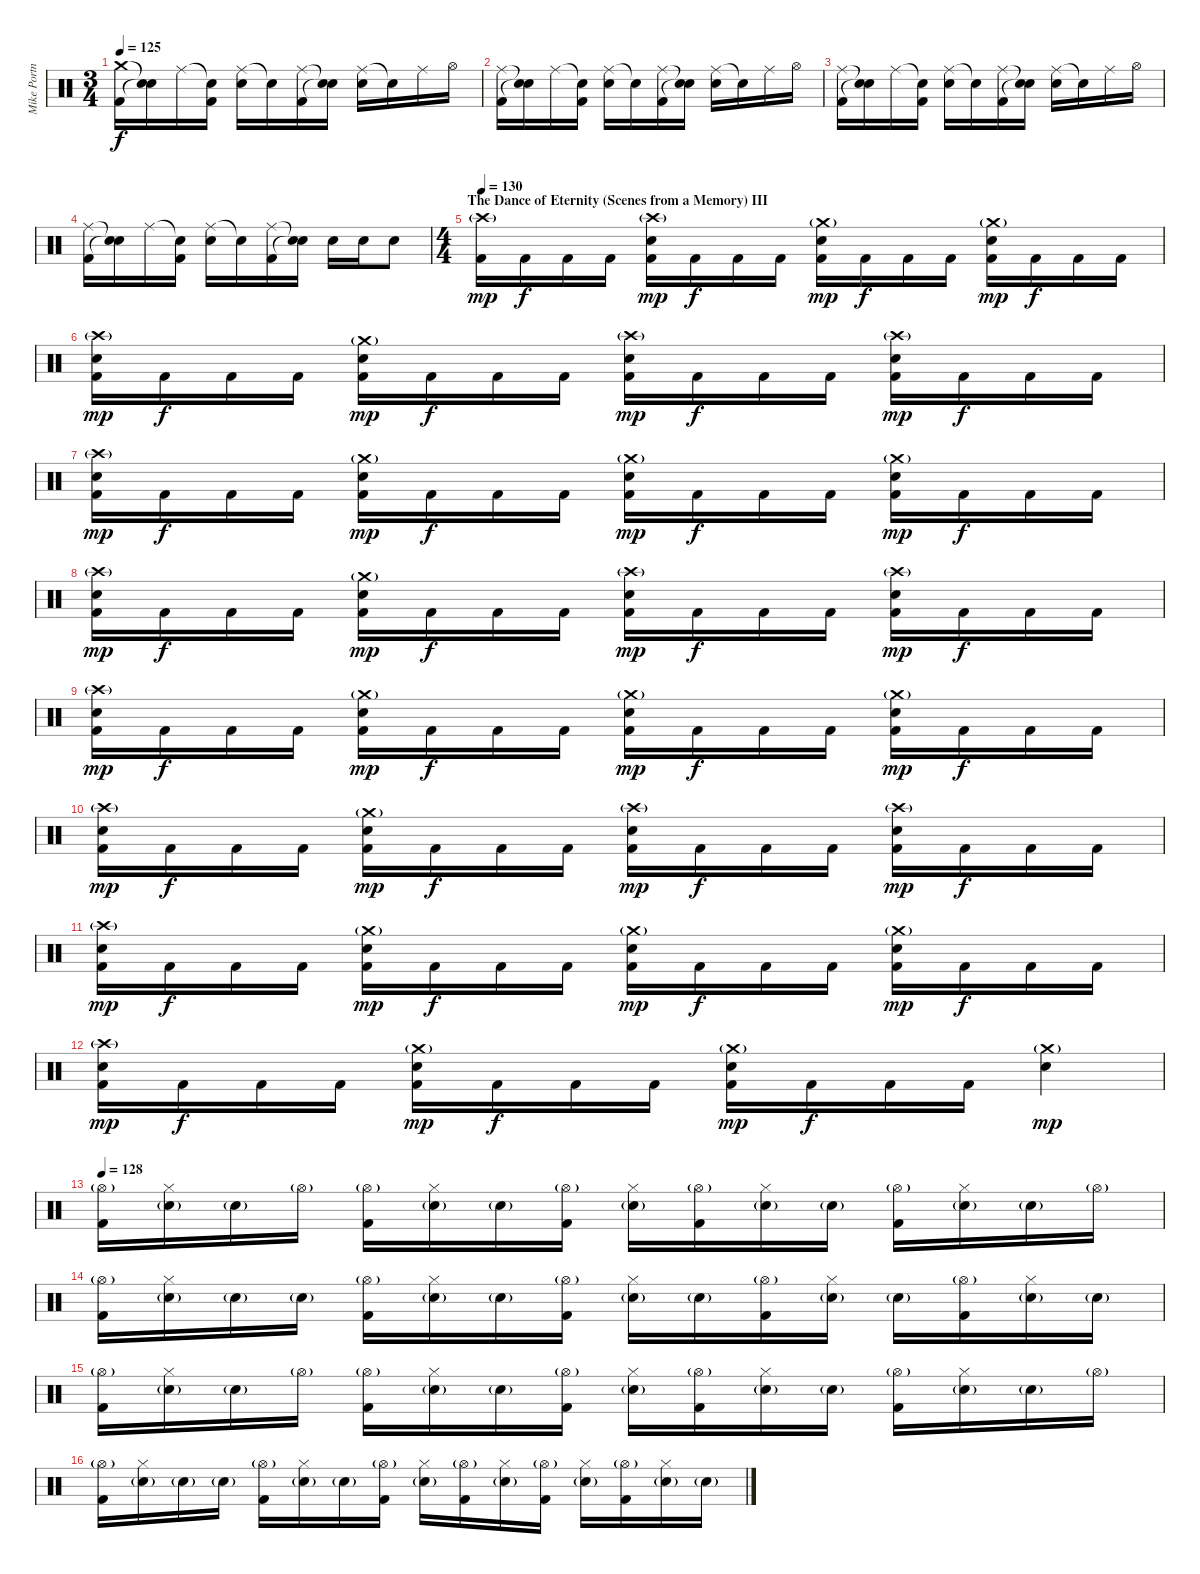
\track ("Mike Portnoy Drums" "Mike Portn") {instrument percussion}
\staff {score}
\articulation defaults
\ts (3 4)
\tempo 125
\clef neutral
\ks c
("Crash medium (hit)" "Kick (hit) 2").16{dy f} ("Snare (hit)"{t} "Snare (hit)"{t}).16 "Ride (middle)".16 ("Snare (hit)"{t} "Kick (hit) 2").16 ("Ride (middle)" "Snare (hit) 2").16 "Snare (hit)"{t}.16 ("Ride (middle)" "Kick (hit) 2").16 ("Snare (hit)"{t} "Snare (hit)"{t}).16 ("Ride (middle)" "Snare (hit) 2").16 "Snare (hit)"{t}.16 "Ride (middle)".16 "Hi-Hat (open)".16 |
("Ride (middle)" "Kick (hit) 2").16 ("Snare (hit)"{t} "Snare (hit)"{t}).16 "Ride (middle)".16 ("Snare (hit)"{t} "Kick (hit) 2").16 ("Ride (middle)" "Snare (hit) 2").16 "Snare (hit)"{t}.16 ("Ride (middle)" "Kick (hit) 2").16 ("Snare (hit)"{t} "Snare (hit)"{t}).16 ("Ride (middle)" "Snare (hit) 2").16 "Snare (hit)"{t}.16 "Ride (middle)".16 "Hi-Hat (open)".16 |
("Ride (middle)" "Kick (hit) 2").16 ("Snare (hit)"{t} "Snare (hit)"{t}).16 "Ride (middle)".16 ("Snare (hit)"{t} "Kick (hit) 2").16 ("Ride (middle)" "Snare (hit) 2").16 "Snare (hit)"{t}.16 ("Ride (middle)" "Kick (hit) 2").16 ("Snare (hit)"{t} "Snare (hit)"{t}).16 ("Ride (middle)" "Snare (hit) 2").16 "Snare (hit)"{t}.16 "Ride (middle)".16 "Hi-Hat (open)".16 |
("Ride (middle)" "Kick (hit) 2").16 ("Snare (hit)"{t} "Snare (hit)"{t}).16 "Ride (middle)".16 ("Snare (hit)"{t} "Kick (hit) 2").16 ("Ride (middle)" "Snare (hit) 2").16 "Snare (hit)"{t}.16 ("Ride (middle)" "Kick (hit) 2").16 ("Snare (hit)"{t} "Snare (hit)"{t}).16 "Snare (hit) 2".16 "Snare (hit) 2".16 "Snare (hit) 2".8 |
\ts (4 4)
\section ("" "The Dance of Eternity (Scenes from a Memory) III")
\tempo 130
("Crash high (hit)"{g} "Kick (hit) 2").16{dy mp} "Kick (hit) 2".16{dy f} "Kick (hit) 2".16 "Kick (hit) 2".16 ("Crash high (hit)"{g} "Snare (hit) 2" "Kick (hit) 2").16{dy mp} "Kick (hit) 2".16{dy f} "Kick (hit) 2".16 "Kick (hit) 2".16 ("Crash medium (hit)"{g} "Snare (hit) 2" "Kick (hit) 2").16{dy mp} "Kick (hit) 2".16{dy f} "Kick (hit) 2".16 "Kick (hit) 2".16 ("Crash medium (hit)"{g} "Snare (hit) 2" "Kick (hit) 2").16{dy mp} "Kick (hit) 2".16{dy f} "Kick (hit) 2".16 "Kick (hit) 2".16 |
("Crash high (hit)"{g} "Snare (hit) 2" "Kick (hit) 2").16{dy mp} "Kick (hit) 2".16{dy f} "Kick (hit) 2".16 "Kick (hit) 2".16 ("Crash medium (hit)"{g} "Snare (hit) 2" "Kick (hit) 2").16{dy mp} "Kick (hit) 2".16{dy f} "Kick (hit) 2".16 "Kick (hit) 2".16 ("Crash high (hit)"{g} "Snare (hit) 2" "Kick (hit) 2").16{dy mp} "Kick (hit) 2".16{dy f} "Kick (hit) 2".16 "Kick (hit) 2".16 ("Crash high (hit)"{g} "Snare (hit) 2" "Kick (hit) 2").16{dy mp} "Kick (hit) 2".16{dy f} "Kick (hit) 2".16 "Kick (hit) 2".16 |
("Crash high (hit)"{g} "Snare (hit) 2" "Kick (hit) 2").16{dy mp} "Kick (hit) 2".16{dy f} "Kick (hit) 2".16 "Kick (hit) 2".16 ("Crash medium (hit)"{g} "Snare (hit) 2" "Kick (hit) 2").16{dy mp} "Kick (hit) 2".16{dy f} "Kick (hit) 2".16 "Kick (hit) 2".16 ("Crash medium (hit)"{g} "Snare (hit) 2" "Kick (hit) 2").16{dy mp} "Kick (hit) 2".16{dy f} "Kick (hit) 2".16 "Kick (hit) 2".16 ("Crash medium (hit)"{g} "Snare (hit) 2" "Kick (hit) 2").16{dy mp} "Kick (hit) 2".16{dy f} "Kick (hit) 2".16 "Kick (hit) 2".16 |
("Crash high (hit)"{g} "Snare (hit) 2" "Kick (hit) 2").16{dy mp} "Kick (hit) 2".16{dy f} "Kick (hit) 2".16 "Kick (hit) 2".16 ("Crash medium (hit)"{g} "Snare (hit) 2" "Kick (hit) 2").16{dy mp} "Kick (hit) 2".16{dy f} "Kick (hit) 2".16 "Kick (hit) 2".16 ("Crash high (hit)"{g} "Snare (hit) 2" "Kick (hit) 2").16{dy mp} "Kick (hit) 2".16{dy f} "Kick (hit) 2".16 "Kick (hit) 2".16 ("Crash high (hit)"{g} "Snare (hit) 2" "Kick (hit) 2").16{dy mp} "Kick (hit) 2".16{dy f} "Kick (hit) 2".16 "Kick (hit) 2".16 |
("Crash high (hit)"{g} "Snare (hit) 2" "Kick (hit) 2").16{dy mp} "Kick (hit) 2".16{dy f} "Kick (hit) 2".16 "Kick (hit) 2".16 ("Crash medium (hit)"{g} "Snare (hit) 2" "Kick (hit) 2").16{dy mp} "Kick (hit) 2".16{dy f} "Kick (hit) 2".16 "Kick (hit) 2".16 ("Crash medium (hit)"{g} "Snare (hit) 2" "Kick (hit) 2").16{dy mp} "Kick (hit) 2".16{dy f} "Kick (hit) 2".16 "Kick (hit) 2".16 ("Crash medium (hit)"{g} "Snare (hit) 2" "Kick (hit) 2").16{dy mp} "Kick (hit) 2".16{dy f} "Kick (hit) 2".16 "Kick (hit) 2".16 |
("Crash high (hit)"{g} "Snare (hit) 2" "Kick (hit) 2").16{dy mp} "Kick (hit) 2".16{dy f} "Kick (hit) 2".16 "Kick (hit) 2".16 ("Crash medium (hit)"{g} "Snare (hit) 2" "Kick (hit) 2").16{dy mp} "Kick (hit) 2".16{dy f} "Kick (hit) 2".16 "Kick (hit) 2".16 ("Crash high (hit)"{g} "Snare (hit) 2" "Kick (hit) 2").16{dy mp} "Kick (hit) 2".16{dy f} "Kick (hit) 2".16 "Kick (hit) 2".16 ("Crash high (hit)"{g} "Snare (hit) 2" "Kick (hit) 2").16{dy mp} "Kick (hit) 2".16{dy f} "Kick (hit) 2".16 "Kick (hit) 2".16 |
("Crash high (hit)"{g} "Snare (hit) 2" "Kick (hit) 2").16{dy mp} "Kick (hit) 2".16{dy f} "Kick (hit) 2".16 "Kick (hit) 2".16 ("Crash medium (hit)"{g} "Snare (hit) 2" "Kick (hit) 2").16{dy mp} "Kick (hit) 2".16{dy f} "Kick (hit) 2".16 "Kick (hit) 2".16 ("Crash medium (hit)"{g} "Snare (hit) 2" "Kick (hit) 2").16{dy mp} "Kick (hit) 2".16{dy f} "Kick (hit) 2".16 "Kick (hit) 2".16 ("Crash medium (hit)"{g} "Snare (hit) 2" "Kick (hit) 2").16{dy mp} "Kick (hit) 2".16{dy f} "Kick (hit) 2".16 "Kick (hit) 2".16 |
("Crash high (hit)"{g} "Snare (hit) 2" "Kick (hit) 2").16{dy mp} "Kick (hit) 2".16{dy f} "Kick (hit) 2".16 "Kick (hit) 2".16 ("Crash medium (hit)"{g} "Snare (hit) 2" "Kick (hit) 2").16{dy mp} "Kick (hit) 2".16{dy f} "Kick (hit) 2".16 "Kick (hit) 2".16 ("Crash medium (hit)"{g} "Snare (hit) 2" "Kick (hit) 2").16{dy mp} "Kick (hit) 2".16{dy f} "Kick (hit) 2".16 "Kick (hit) 2".16 ("Crash medium (hit)"{g} "Snare (hit) 2").4{dy mp} |
\tempo 128
("Hi-Hat (open)"{g} "Kick (hit) 2").16 ("Hi-Hat (closed)" "Snare (hit) 2"{g}).16 "Snare (hit) 2"{g}.16 "Hi-Hat (open)"{g}.16 ("Hi-Hat (open)"{g} "Kick (hit) 2").16 ("Hi-Hat (closed)" "Snare (hit) 2"{g}).16 "Snare (hit) 2"{g}.16 ("Hi-Hat (open)"{g} "Kick (hit) 2").16 ("Hi-Hat (closed)" "Snare (hit) 2"{g}).16 ("Hi-Hat (open)"{g} "Kick (hit) 2").16 ("Hi-Hat (closed)" "Snare (hit) 2"{g}).16 "Snare (hit) 2"{g}.16 ("Hi-Hat (open)"{g} "Kick (hit) 2").16 ("Hi-Hat (closed)" "Snare (hit) 2"{g}).16 "Snare (hit) 2"{g}.16 "Hi-Hat (open)"{g}.16 |
("Hi-Hat (open)"{g} "Kick (hit) 2").16 ("Hi-Hat (closed)" "Snare (hit) 2"{g}).16 "Snare (hit) 2"{g}.16 "Snare (hit) 2"{g}.16 ("Hi-Hat (open)"{g} "Kick (hit) 2").16 ("Hi-Hat (closed)" "Snare (hit) 2"{g}).16 "Snare (hit) 2"{g}.16 ("Hi-Hat (open)"{g} "Kick (hit) 2").16 ("Hi-Hat (closed)" "Snare (hit) 2"{g}).16 "Snare (hit) 2"{g}.16 ("Hi-Hat (open)"{g} "Kick (hit) 2").16 ("Hi-Hat (closed)" "Snare (hit) 2"{g}).16 "Snare (hit) 2"{g}.16 ("Hi-Hat (open)"{g} "Kick (hit) 2").16 ("Hi-Hat (closed)" "Snare (hit) 2"{g}).16 "Snare (hit) 2"{g}.16 |
("Hi-Hat (open)"{g} "Kick (hit) 2").16 ("Hi-Hat (closed)" "Snare (hit) 2"{g}).16 "Snare (hit) 2"{g}.16 "Hi-Hat (open)"{g}.16 ("Hi-Hat (open)"{g} "Kick (hit) 2").16 ("Hi-Hat (closed)" "Snare (hit) 2"{g}).16 "Snare (hit) 2"{g}.16 ("Hi-Hat (open)"{g} "Kick (hit) 2").16 ("Hi-Hat (closed)" "Snare (hit) 2"{g}).16 ("Hi-Hat (open)"{g} "Kick (hit) 2").16 ("Hi-Hat (closed)" "Snare (hit) 2"{g}).16 "Snare (hit) 2"{g}.16 ("Hi-Hat (open)"{g} "Kick (hit) 2").16 ("Hi-Hat (closed)" "Snare (hit) 2"{g}).16 "Snare (hit) 2"{g}.16 "Hi-Hat (open)"{g}.16 |
("Hi-Hat (open)"{g} "Kick (hit) 2").16 ("Hi-Hat (closed)" "Snare (hit) 2"{g}).16 "Snare (hit) 2"{g}.16 "Snare (hit) 2"{g}.16 ("Hi-Hat (open)"{g} "Kick (hit) 2").16 ("Hi-Hat (closed)" "Snare (hit) 2"{g}).16 "Snare (hit) 2"{g}.16 ("Hi-Hat (open)"{g} "Kick (hit) 2").16 ("Hi-Hat (closed)" "Snare (hit) 2"{g}).16 ("Hi-Hat (open)"{g} "Kick (hit) 2").16 ("Hi-Hat (closed)" "Snare (hit) 2"{g}).16 ("Hi-Hat (open)"{g} "Kick (hit) 2").16 ("Hi-Hat (closed)" "Snare (hit) 2"{g}).16 ("Hi-Hat (open)"{g} "Kick (hit) 2").16 ("Hi-Hat (closed)" "Snare (hit) 2"{g}).16 "Snare (hit) 2"{g}.16
